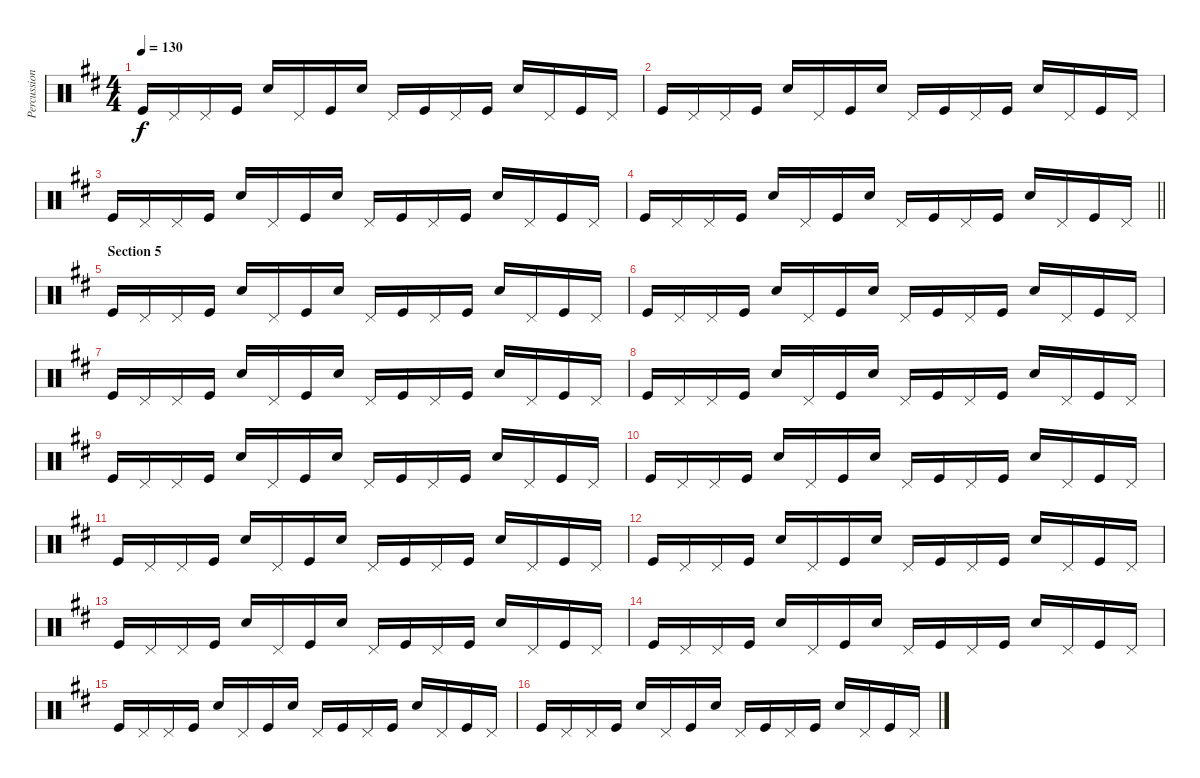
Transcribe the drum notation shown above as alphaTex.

\track ("Percussion" "Percussion") {instrument percussion}
\staff {score}
\articulation defaults
\ts (4 4)
\tempo 130
\clef neutral
\ks d "Kick (hit)".16{dy f} "Pedal Hi-Hat (hit)".16 "Pedal Hi-Hat (hit)".16 "Kick (hit)".16 "Snare (hit) 2".16 "Pedal Hi-Hat (hit)".16 "Kick (hit)".16 "Snare (hit) 2".16 "Pedal Hi-Hat (hit)".16 "Kick (hit)".16 "Pedal Hi-Hat (hit)".16 "Kick (hit)".16 "Snare (hit) 2".16 "Pedal Hi-Hat (hit)".16 "Kick (hit)".16 "Pedal Hi-Hat (hit)".16
|
"Kick (hit)".16 "Pedal Hi-Hat (hit)".16 "Pedal Hi-Hat (hit)".16 "Kick (hit)".16 "Snare (hit) 2".16 "Pedal Hi-Hat (hit)".16 "Kick (hit)".16 "Snare (hit) 2".16 "Pedal Hi-Hat (hit)".16 "Kick (hit)".16 "Pedal Hi-Hat (hit)".16 "Kick (hit)".16 "Snare (hit) 2".16 "Pedal Hi-Hat (hit)".16 "Kick (hit)".16 "Pedal Hi-Hat (hit)".16 |
"Kick (hit)".16 "Pedal Hi-Hat (hit)".16 "Pedal Hi-Hat (hit)".16 "Kick (hit)".16 "Snare (hit) 2".16 "Pedal Hi-Hat (hit)".16 "Kick (hit)".16 "Snare (hit) 2".16 "Pedal Hi-Hat (hit)".16 "Kick (hit)".16 "Pedal Hi-Hat (hit)".16 "Kick (hit)".16 "Snare (hit) 2".16 "Pedal Hi-Hat (hit)".16 "Kick (hit)".16 "Pedal Hi-Hat (hit)".16 |
\barLineRight lightlight "Kick (hit)".16 "Pedal Hi-Hat (hit)".16 "Pedal Hi-Hat (hit)".16 "Kick (hit)".16 "Snare (hit) 2".16 "Pedal Hi-Hat (hit)".16 "Kick (hit)".16 "Snare (hit) 2".16 "Pedal Hi-Hat (hit)".16 "Kick (hit)".16 "Pedal Hi-Hat (hit)".16 "Kick (hit)".16 "Snare (hit) 2".16 "Pedal Hi-Hat (hit)".16 "Kick (hit)".16 "Pedal Hi-Hat (hit)".16
|
\section ("" "Section 5")
"Kick (hit)".16 "Pedal Hi-Hat (hit)".16 "Pedal Hi-Hat (hit)".16 "Kick (hit)".16 "Snare (hit) 2".16 "Pedal Hi-Hat (hit)".16 "Kick (hit)".16 "Snare (hit) 2".16 "Pedal Hi-Hat (hit)".16 "Kick (hit)".16 "Pedal Hi-Hat (hit)".16 "Kick (hit)".16 "Snare (hit) 2".16 "Pedal Hi-Hat (hit)".16 "Kick (hit)".16 "Pedal Hi-Hat (hit)".16 |
"Kick (hit)".16 "Pedal Hi-Hat (hit)".16 "Pedal Hi-Hat (hit)".16 "Kick (hit)".16 "Snare (hit) 2".16 "Pedal Hi-Hat (hit)".16 "Kick (hit)".16 "Snare (hit) 2".16 "Pedal Hi-Hat (hit)".16 "Kick (hit)".16 "Pedal Hi-Hat (hit)".16 "Kick (hit)".16 "Snare (hit) 2".16 "Pedal Hi-Hat (hit)".16 "Kick (hit)".16 "Pedal Hi-Hat (hit)".16 |
"Kick (hit)".16 "Pedal Hi-Hat (hit)".16 "Pedal Hi-Hat (hit)".16 "Kick (hit)".16 "Snare (hit) 2".16 "Pedal Hi-Hat (hit)".16 "Kick (hit)".16 "Snare (hit) 2".16 "Pedal Hi-Hat (hit)".16 "Kick (hit)".16 "Pedal Hi-Hat (hit)".16 "Kick (hit)".16 "Snare (hit) 2".16 "Pedal Hi-Hat (hit)".16 "Kick (hit)".16 "Pedal Hi-Hat (hit)".16 |
"Kick (hit)".16 "Pedal Hi-Hat (hit)".16 "Pedal Hi-Hat (hit)".16 "Kick (hit)".16 "Snare (hit) 2".16 "Pedal Hi-Hat (hit)".16 "Kick (hit)".16 "Snare (hit) 2".16 "Pedal Hi-Hat (hit)".16 "Kick (hit)".16 "Pedal Hi-Hat (hit)".16 "Kick (hit)".16 "Snare (hit) 2".16 "Pedal Hi-Hat (hit)".16 "Kick (hit)".16 "Pedal Hi-Hat (hit)".16 |
"Kick (hit)".16 "Pedal Hi-Hat (hit)".16 "Pedal Hi-Hat (hit)".16 "Kick (hit)".16 "Snare (hit) 2".16 "Pedal Hi-Hat (hit)".16 "Kick (hit)".16 "Snare (hit) 2".16 "Pedal Hi-Hat (hit)".16 "Kick (hit)".16 "Pedal Hi-Hat (hit)".16 "Kick (hit)".16 "Snare (hit) 2".16 "Pedal Hi-Hat (hit)".16 "Kick (hit)".16 "Pedal Hi-Hat (hit)".16 |
"Kick (hit)".16 "Pedal Hi-Hat (hit)".16 "Pedal Hi-Hat (hit)".16 "Kick (hit)".16 "Snare (hit) 2".16 "Pedal Hi-Hat (hit)".16 "Kick (hit)".16 "Snare (hit) 2".16 "Pedal Hi-Hat (hit)".16 "Kick (hit)".16 "Pedal Hi-Hat (hit)".16 "Kick (hit)".16 "Snare (hit) 2".16 "Pedal Hi-Hat (hit)".16 "Kick (hit)".16 "Pedal Hi-Hat (hit)".16 |
"Kick (hit)".16 "Pedal Hi-Hat (hit)".16 "Pedal Hi-Hat (hit)".16 "Kick (hit)".16 "Snare (hit) 2".16 "Pedal Hi-Hat (hit)".16 "Kick (hit)".16 "Snare (hit) 2".16 "Pedal Hi-Hat (hit)".16 "Kick (hit)".16 "Pedal Hi-Hat (hit)".16 "Kick (hit)".16 "Snare (hit) 2".16 "Pedal Hi-Hat (hit)".16 "Kick (hit)".16 "Pedal Hi-Hat (hit)".16 |
"Kick (hit)".16 "Pedal Hi-Hat (hit)".16 "Pedal Hi-Hat (hit)".16 "Kick (hit)".16 "Snare (hit) 2".16 "Pedal Hi-Hat (hit)".16 "Kick (hit)".16 "Snare (hit) 2".16 "Pedal Hi-Hat (hit)".16 "Kick (hit)".16 "Pedal Hi-Hat (hit)".16 "Kick (hit)".16 "Snare (hit) 2".16 "Pedal Hi-Hat (hit)".16 "Kick (hit)".16 "Pedal Hi-Hat (hit)".16 |
"Kick (hit)".16 "Pedal Hi-Hat (hit)".16 "Pedal Hi-Hat (hit)".16 "Kick (hit)".16 "Snare (hit) 2".16 "Pedal Hi-Hat (hit)".16 "Kick (hit)".16 "Snare (hit) 2".16 "Pedal Hi-Hat (hit)".16 "Kick (hit)".16 "Pedal Hi-Hat (hit)".16 "Kick (hit)".16 "Snare (hit) 2".16 "Pedal Hi-Hat (hit)".16 "Kick (hit)".16 "Pedal Hi-Hat (hit)".16 |
"Kick (hit)".16 "Pedal Hi-Hat (hit)".16 "Pedal Hi-Hat (hit)".16 "Kick (hit)".16 "Snare (hit) 2".16 "Pedal Hi-Hat (hit)".16 "Kick (hit)".16 "Snare (hit) 2".16 "Pedal Hi-Hat (hit)".16 "Kick (hit)".16 "Pedal Hi-Hat (hit)".16 "Kick (hit)".16 "Snare (hit) 2".16 "Pedal Hi-Hat (hit)".16 "Kick (hit)".16 "Pedal Hi-Hat (hit)".16 |
"Kick (hit)".16 "Pedal Hi-Hat (hit)".16 "Pedal Hi-Hat (hit)".16 "Kick (hit)".16 "Snare (hit) 2".16 "Pedal Hi-Hat (hit)".16 "Kick (hit)".16 "Snare (hit) 2".16 "Pedal Hi-Hat (hit)".16 "Kick (hit)".16 "Pedal Hi-Hat (hit)".16 "Kick (hit)".16 "Snare (hit) 2".16 "Pedal Hi-Hat (hit)".16 "Kick (hit)".16 "Pedal Hi-Hat (hit)".16 |
"Kick (hit)".16 "Pedal Hi-Hat (hit)".16 "Pedal Hi-Hat (hit)".16 "Kick (hit)".16 "Snare (hit) 2".16 "Pedal Hi-Hat (hit)".16 "Kick (hit)".16 "Snare (hit) 2".16 "Pedal Hi-Hat (hit)".16 "Kick (hit)".16 "Pedal Hi-Hat (hit)".16 "Kick (hit)".16 "Snare (hit) 2".16 "Pedal Hi-Hat (hit)".16 "Kick (hit)".16 "Pedal Hi-Hat (hit)".16
